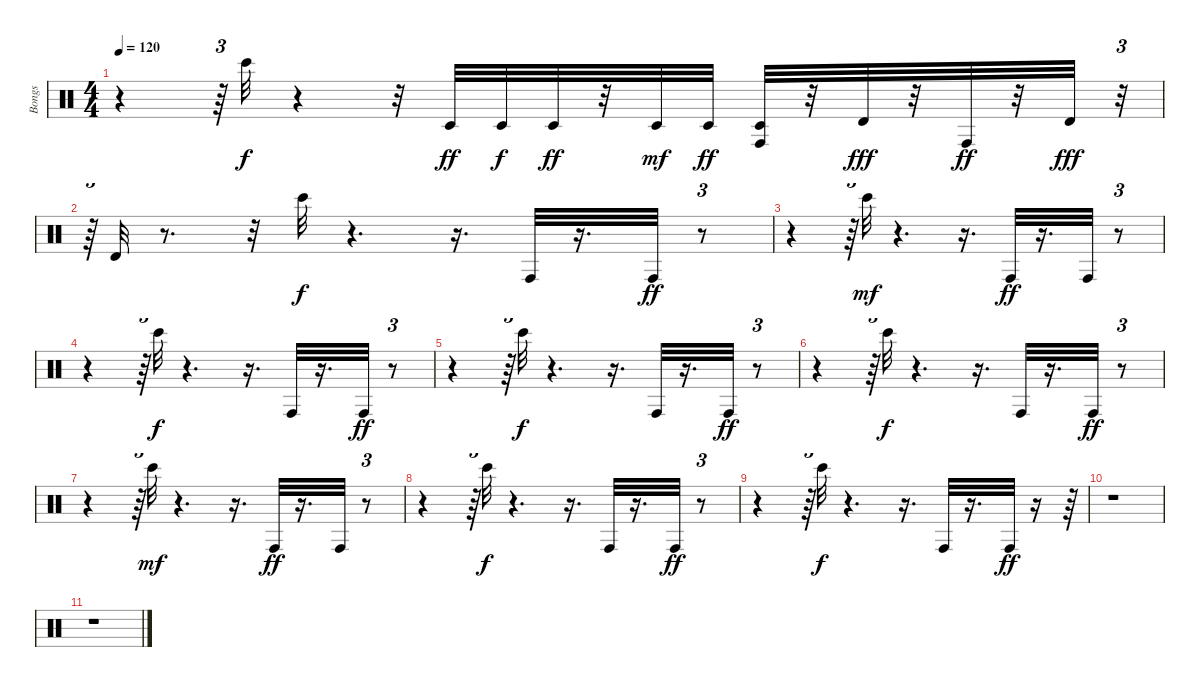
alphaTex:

\track ("Bongs" "Bongs") {instrument percussion}
\staff {score}
\articulation defaults
\ts (4 4)
\tempo 120
\clef neutral
\ks c
r.4{dy ff} r.64{tu (3 2)} "Bongo High (hit)".32{dy f} r.4 r.32 "Timbale low (hit)".32{dy ff} "Timbale low (hit)".32{dy f} "Timbale low (hit)".32{dy ff} r.32 "Timbale low (hit)".32{dy mf} "Timbale low (hit)".32{dy ff} ("Conga high (hit)" "Timbale low (hit)").32 r.32 "Timbale high (hit)".32{dy fff} r.32 "Conga high (hit)".32{dy ff} r.32 "Timbale high (hit)".32{dy fff} r.32{tu (3 2)} |
r.64{tu (3 2)} "Timbale high (hit)".32 r.8{d} r.32 "Bongo High (hit)".32{dy f} r.4{d} r.16{d} "Conga high (hit)".32 r.16{d} "Conga high (hit)".32{dy ff} r.8{tu (3 2)} |
r.4 r.64{tu (3 2)} "Bongo High (hit)".32{dy mf} r.4{d} r.16{d} "Conga high (hit)".32{dy ff} r.16{d} "Conga high (hit)".32 r.8{tu (3 2)} |
r.4 r.64{tu (3 2)} "Bongo High (hit)".32{dy f} r.4{d} r.16{d} "Conga high (hit)".32 r.16{d} "Conga high (hit)".32{dy ff} r.8{tu (3 2)} |
r.4 r.64{tu (3 2)} "Bongo High (hit)".32{dy f} r.4{d} r.16{d} "Conga high (hit)".32 r.16{d} "Conga high (hit)".32{dy ff} r.8{tu (3 2)} |
r.4 r.64{tu (3 2)} "Bongo High (hit)".32{dy f} r.4{d} r.16{d} "Conga high (hit)".32 r.16{d} "Conga high (hit)".32{dy ff} r.8{tu (3 2)} |
r.4 r.64{tu (3 2)} "Bongo High (hit)".32{dy mf} r.4{d} r.16{d} "Conga high (hit)".32{dy ff} r.16{d} "Conga high (hit)".32 r.8{tu (3 2)} |
r.4 r.64{tu (3 2)} "Bongo High (hit)".32{dy f} r.4{d} r.16{d} "Conga high (hit)".32 r.16{d} "Conga high (hit)".32{dy ff} r.8{tu (3 2)} |
r.4 r.64{tu (3 2)} "Bongo High (hit)".32{dy f} r.4{d} r.16{d} "Conga high (hit)".32 r.16{d} "Conga high (hit)".32{dy ff} r.16 r.64 |
r.1 |
r.1
